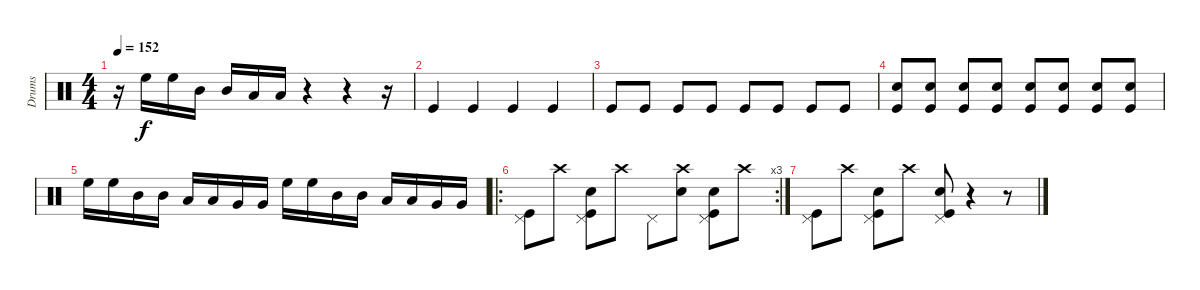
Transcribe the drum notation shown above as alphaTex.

\track ("Drums" "Drums") {instrument percussion}
\staff {score}
\articulation defaults
\ts (4 4)
\tempo 152
\clef neutral
\ks c
r.16{dy f} "High Floor Tom (hit)".16 "High Floor Tom (hit)".16 "Mid Tom (hit)".16 "Mid Tom (hit)".16 "Low Tom (hit)".16 "Low Tom (hit)".16 r.4 r.4 r.16 |
"Kick (hit)".4 "Kick (hit)".4 "Kick (hit)".4 "Kick (hit)".4 |
"Kick (hit)".8 "Kick (hit)".8 "Kick (hit)".8 "Kick (hit)".8 "Kick (hit)".8 "Kick (hit)".8 "Kick (hit)".8 "Kick (hit)".8 |
("Electric Snare (hit)" "Kick (hit)").8 ("Electric Snare (hit)" "Kick (hit)").8 ("Electric Snare (hit)" "Kick (hit)").8 ("Electric Snare (hit)" "Kick (hit)").8 ("Electric Snare (hit)" "Kick (hit)").8 ("Electric Snare (hit)" "Kick (hit)").8 ("Electric Snare (hit)" "Kick (hit)").8 ("Electric Snare (hit)" "Kick (hit)").8 |
"High Floor Tom (hit)".16 "High Floor Tom (hit)".16 "Mid Tom (hit)".16 "Mid Tom (hit)".16 "Low Tom (hit)".16 "Low Tom (hit)".16 "Very Low Tom (hit)".16 "Very Low Tom (hit)".16 "High Floor Tom (hit)".16 "High Floor Tom (hit)".16 "Mid Tom (hit)".16 "Mid Tom (hit)".16 "Low Tom (hit)".16 "Low Tom (hit)".16 "Very Low Tom (hit)".16 "Very Low Tom (hit)".16 |
\ro
\rc 3
("Pedal Hi-Hat (hit)" "Kick (hit)").8 "Crash high (hit)".8 ("Pedal Hi-Hat (hit)" "Electric Snare (hit)" "Kick (hit)").8 "Crash high (hit)".8 "Pedal Hi-Hat (hit)".8 ("Crash high (hit)" "Electric Snare (hit)").8 ("Pedal Hi-Hat (hit)" "Electric Snare (hit)" "Kick (hit)").8 "Crash high (hit)".8 |
("Pedal Hi-Hat (hit)" "Kick (hit)").8 "Crash high (hit)".8 ("Pedal Hi-Hat (hit)" "Electric Snare (hit)" "Kick (hit)").8 "Crash high (hit)".8 ("Pedal Hi-Hat (hit)" "Electric Snare (hit)" "Kick (hit)").8 r.4 r.8
